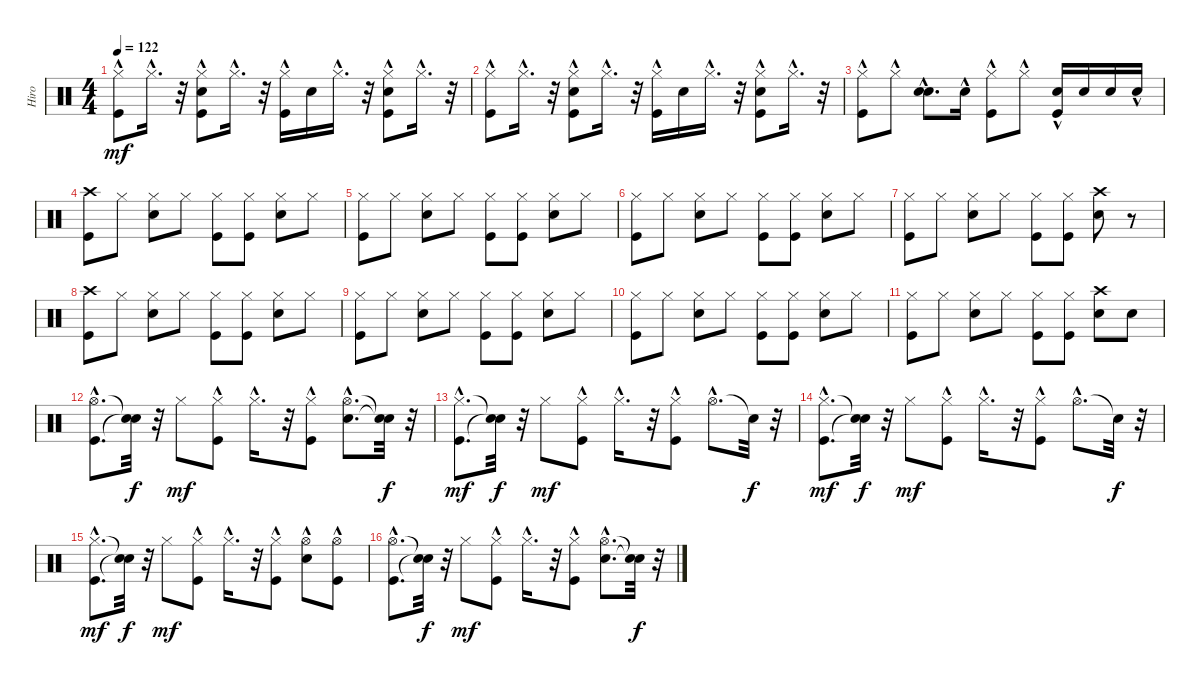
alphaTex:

\track ("Hiro" "Hiro") {instrument percussion}
\staff {score}
\articulation defaults
\ts (4 4)
\tempo 122
\clef neutral
\ks c
("Kick (hit)"{hac} "Hi-Hat (closed)"{hac}).8{dy mf} "Hi-Hat (closed)"{hac}.16{d} r.32 ("Kick (hit)"{hac} "Electric Snare (hit)"{hac} "Hi-Hat (closed)"{hac}).8 "Hi-Hat (closed)"{hac}.16{d} r.32 ("Kick (hit)"{hac} "Hi-Hat (closed)"{hac}).16 "Electric Snare (hit)".16 "Hi-Hat (closed)"{hac}.16{d} r.32 ("Electric Snare (hit)"{hac} "Hi-Hat (closed)"{hac} "Kick (hit)"{hac}).8 "Hi-Hat (closed)"{hac}.16{d} r.32 |
("Kick (hit)"{hac} "Hi-Hat (closed)"{hac}).8 "Hi-Hat (closed)"{hac}.16{d} r.32 ("Kick (hit)"{hac} "Electric Snare (hit)"{hac} "Hi-Hat (closed)"{hac}).8 "Hi-Hat (closed)"{hac}.16{d} r.32 ("Kick (hit)"{hac} "Hi-Hat (closed)"{hac}).16 "Electric Snare (hit)".16 "Hi-Hat (closed)"{hac}.16{d} r.32 ("Electric Snare (hit)"{hac} "Hi-Hat (closed)"{hac} "Kick (hit)"{hac}).8 "Hi-Hat (closed)"{hac}.16{d} r.32 |
("Hi-Hat (closed)"{hac} "Kick (hit)"{hac}).8 "Hi-Hat (closed)"{hac}.8 ("Electric Snare (hit)"{hac} "Electric Snare (hit)"{hac}).8{d} "Electric Snare (hit)"{hac}.16 ("Kick (hit)"{hac} "Hi-Hat (closed)").8 "Hi-Hat (closed)"{hac}.8 ("Electric Snare (hit)" "Kick (hit)"{hac}).16 "Electric Snare (hit)".16 "Electric Snare (hit)".16 "Electric Snare (hit)"{hac}.16 |
("Crash high (hit)" "Kick (hit)").8 "Hi-Hat (closed)".8 ("Electric Snare (hit)" "Hi-Hat (closed)").8 "Hi-Hat (closed)".8 ("Hi-Hat (closed)" "Kick (hit)").8 ("Hi-Hat (closed)" "Kick (hit)").8 ("Electric Snare (hit)" "Hi-Hat (closed)").8 "Hi-Hat (closed)".8 |
("Hi-Hat (closed)" "Kick (hit)").8 "Hi-Hat (closed)".8 ("Electric Snare (hit)" "Hi-Hat (closed)").8 "Hi-Hat (closed)".8 ("Hi-Hat (closed)" "Kick (hit)").8 ("Hi-Hat (closed)" "Kick (hit)").8 ("Electric Snare (hit)" "Hi-Hat (closed)").8 "Hi-Hat (closed)".8 |
("Hi-Hat (closed)" "Kick (hit)").8 "Hi-Hat (closed)".8 ("Electric Snare (hit)" "Hi-Hat (closed)").8 "Hi-Hat (closed)".8 ("Hi-Hat (closed)" "Kick (hit)").8 ("Hi-Hat (closed)" "Kick (hit)").8 ("Electric Snare (hit)" "Hi-Hat (closed)").8 "Hi-Hat (closed)".8 |
("Hi-Hat (closed)" "Kick (hit)").8 "Hi-Hat (closed)".8 ("Electric Snare (hit)" "Hi-Hat (closed)").8 "Hi-Hat (closed)".8 ("Hi-Hat (closed)" "Kick (hit)").8 ("Hi-Hat (closed)" "Kick (hit)").8 ("Electric Snare (hit)" "Crash high (hit)").8 r.8 |
("Crash high (hit)" "Kick (hit)").8 "Hi-Hat (closed)".8 ("Electric Snare (hit)" "Hi-Hat (closed)").8 "Hi-Hat (closed)".8 ("Hi-Hat (closed)" "Kick (hit)").8 ("Hi-Hat (closed)" "Kick (hit)").8 ("Electric Snare (hit)" "Hi-Hat (closed)").8 "Hi-Hat (closed)".8 |
("Hi-Hat (closed)" "Kick (hit)").8 "Hi-Hat (closed)".8 ("Electric Snare (hit)" "Hi-Hat (closed)").8 "Hi-Hat (closed)".8 ("Hi-Hat (closed)" "Kick (hit)").8 ("Hi-Hat (closed)" "Kick (hit)").8 ("Electric Snare (hit)" "Hi-Hat (closed)").8 "Hi-Hat (closed)".8 |
("Hi-Hat (closed)" "Kick (hit)").8 "Hi-Hat (closed)".8 ("Electric Snare (hit)" "Hi-Hat (closed)").8 "Hi-Hat (closed)".8 ("Hi-Hat (closed)" "Kick (hit)").8 ("Hi-Hat (closed)" "Kick (hit)").8 ("Electric Snare (hit)" "Hi-Hat (closed)").8 "Hi-Hat (closed)".8 |
("Hi-Hat (closed)" "Kick (hit)").8 "Hi-Hat (closed)".8 ("Electric Snare (hit)" "Hi-Hat (closed)").8 "Hi-Hat (closed)".8 ("Hi-Hat (closed)" "Kick (hit)").8 ("Hi-Hat (closed)" "Kick (hit)").8 ("Electric Snare (hit)" "Crash high (hit)").8 "Electric Snare (hit)".8 |
("Hi-Hat (open)"{hac} "Kick (hit)"{hac}).8{d} ("Snare (hit)"{t} "Snare (hit)"{t}).32{dy f} r.32 "Hi-Hat (closed)".8{dy mf} ("Hi-Hat (closed)"{hac} "Kick (hit)"{hac}).8 "Hi-Hat (closed)"{hac}.16{d} r.32 ("Hi-Hat (closed)"{hac} "Kick (hit)"{hac}).8 ("Electric Snare (hit)"{hac} "Hi-Hat (open)"{hac}).8{d} ("Snare (hit)"{t} "Snare (hit)"{t}).32{dy f} r.32 |
("Kick (hit)"{hac} "Hi-Hat (closed)"{hac}).8{d dy mf} ("Snare (hit)"{t} "Snare (hit)"{t}).32{dy f} r.32 "Hi-Hat (closed)".8{dy mf} ("Kick (hit)"{hac} "Hi-Hat (closed)"{hac}).8 "Hi-Hat (closed)"{hac}.16{d} r.32 ("Kick (hit)"{hac} "Hi-Hat (closed)"{hac}).8 "Hi-Hat (open)"{hac}.8{d} "Snare (hit)"{t}.32{dy f} r.32 |
("Kick (hit)"{hac} "Hi-Hat (closed)"{hac}).8{d dy mf} ("Snare (hit)"{t} "Snare (hit)"{t}).32{dy f} r.32 "Hi-Hat (closed)".8{dy mf} ("Kick (hit)"{hac} "Hi-Hat (closed)"{hac}).8 "Hi-Hat (closed)"{hac}.16{d} r.32 ("Kick (hit)"{hac} "Hi-Hat (closed)"{hac}).8 "Hi-Hat (open)"{hac}.8{d} "Snare (hit)"{t}.32{dy f} r.32 |
("Hi-Hat (closed)"{hac} "Kick (hit)"{hac}).8{d dy mf} ("Snare (hit)"{t} "Snare (hit)"{t}).32{dy f} r.32 "Hi-Hat (closed)".8{dy mf} ("Hi-Hat (closed)"{hac} "Kick (hit)"{hac}).8 "Hi-Hat (closed)"{hac}.16{d} r.32 ("Hi-Hat (closed)"{hac} "Kick (hit)"{hac}).8 ("Electric Snare (hit)"{hac} "Hi-Hat (open)").8 ("Hi-Hat (open)"{hac} "Kick (hit)").8 |
("Kick (hit)"{hac} "Hi-Hat (open)"{hac}).8{d} ("Snare (hit)"{t} "Snare (hit)"{t}).32{dy f} r.32 "Hi-Hat (closed)".8{dy mf} ("Hi-Hat (closed)"{hac} "Kick (hit)"{hac}).8 "Hi-Hat (closed)"{hac}.16{d} r.32 ("Hi-Hat (closed)"{hac} "Kick (hit)"{hac}).8 ("Electric Snare (hit)"{hac} "Hi-Hat (open)"{hac}).8{d} ("Snare (hit)"{t} "Snare (hit)"{t}).32{dy f} r.32
